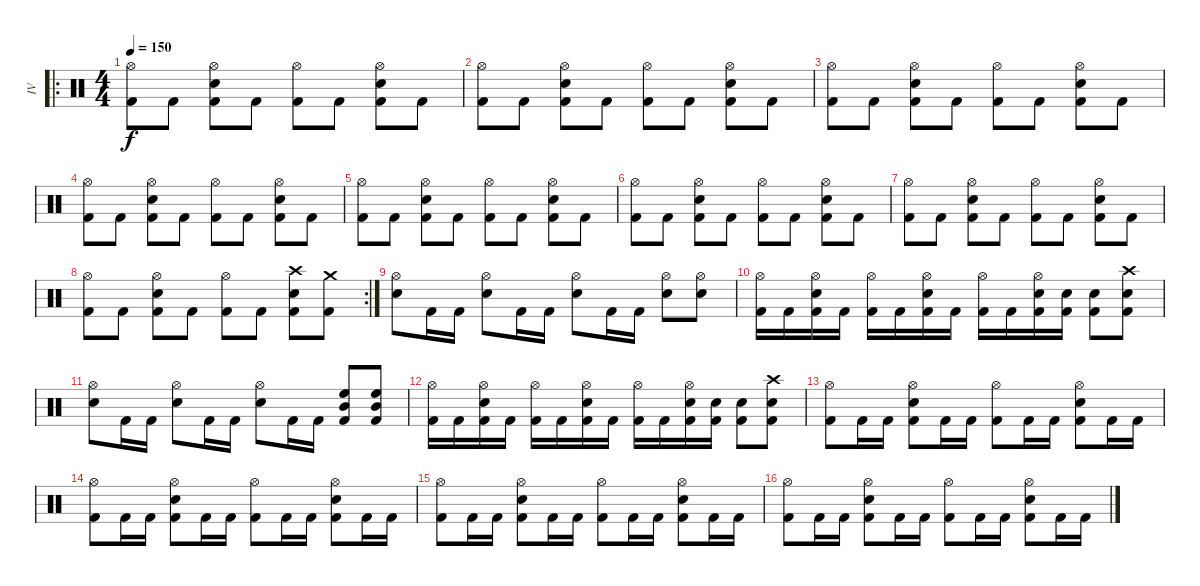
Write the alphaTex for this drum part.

\track ("IV" "IV") {instrument percussion}
\staff {score}
\articulation defaults
\ro
\ts (4 4)
\tempo 150
\clef neutral
\ks c
("Hi-Hat (open)" "Kick (hit) 2").8{dy f} "Kick (hit) 2".8 ("Hi-Hat (open)" "Snare (hit) 2" "Kick (hit) 2").8 "Kick (hit) 2".8 ("Hi-Hat (open)" "Kick (hit) 2").8 "Kick (hit) 2".8 ("Hi-Hat (open)" "Snare (hit) 2" "Kick (hit) 2").8 "Kick (hit) 2".8 |
("Hi-Hat (open)" "Kick (hit) 2").8 "Kick (hit) 2".8 ("Hi-Hat (open)" "Snare (hit) 2" "Kick (hit) 2").8 "Kick (hit) 2".8 ("Hi-Hat (open)" "Kick (hit) 2").8 "Kick (hit) 2".8 ("Hi-Hat (open)" "Snare (hit) 2" "Kick (hit) 2").8 "Kick (hit) 2".8 |
("Hi-Hat (open)" "Kick (hit) 2").8 "Kick (hit) 2".8 ("Hi-Hat (open)" "Snare (hit) 2" "Kick (hit) 2").8 "Kick (hit) 2".8 ("Hi-Hat (open)" "Kick (hit) 2").8 "Kick (hit) 2".8 ("Hi-Hat (open)" "Snare (hit) 2" "Kick (hit) 2").8 "Kick (hit) 2".8 |
("Hi-Hat (open)" "Kick (hit) 2").8 "Kick (hit) 2".8 ("Hi-Hat (open)" "Snare (hit) 2" "Kick (hit) 2").8 "Kick (hit) 2".8 ("Hi-Hat (open)" "Kick (hit) 2").8 "Kick (hit) 2".8 ("Hi-Hat (open)" "Snare (hit) 2" "Kick (hit) 2").8 "Kick (hit) 2".8 |
("Hi-Hat (open)" "Kick (hit) 2").8 "Kick (hit) 2".8 ("Hi-Hat (open)" "Snare (hit) 2" "Kick (hit) 2").8 "Kick (hit) 2".8 ("Hi-Hat (open)" "Kick (hit) 2").8 "Kick (hit) 2".8 ("Hi-Hat (open)" "Snare (hit) 2" "Kick (hit) 2").8 "Kick (hit) 2".8 |
("Hi-Hat (open)" "Kick (hit) 2").8 "Kick (hit) 2".8 ("Hi-Hat (open)" "Snare (hit) 2" "Kick (hit) 2").8 "Kick (hit) 2".8 ("Hi-Hat (open)" "Kick (hit) 2").8 "Kick (hit) 2".8 ("Hi-Hat (open)" "Snare (hit) 2" "Kick (hit) 2").8 "Kick (hit) 2".8 |
("Hi-Hat (open)" "Kick (hit) 2").8 "Kick (hit) 2".8 ("Hi-Hat (open)" "Snare (hit) 2" "Kick (hit) 2").8 "Kick (hit) 2".8 ("Hi-Hat (open)" "Kick (hit) 2").8 "Kick (hit) 2".8 ("Hi-Hat (open)" "Snare (hit) 2" "Kick (hit) 2").8 "Kick (hit) 2".8 |
\rc 2
("Hi-Hat (open)" "Kick (hit) 2").8 "Kick (hit) 2".8 ("Hi-Hat (open)" "Snare (hit) 2" "Kick (hit) 2").8 "Kick (hit) 2".8 ("Hi-Hat (open)" "Kick (hit) 2").8 "Kick (hit) 2".8 ("Crash high (hit)" "Snare (hit) 2" "Kick (hit) 2").8 ("Crash medium (hit)" "Kick (hit) 2").8 |
("Hi-Hat (open)" "Snare (hit) 2").8 "Kick (hit) 2".16 "Kick (hit) 2".16 ("Hi-Hat (open)" "Snare (hit) 2").8 "Kick (hit) 2".16 "Kick (hit) 2".16 ("Hi-Hat (open)" "Snare (hit) 2").8 "Kick (hit) 2".16 "Kick (hit) 2".16 ("Hi-Hat (open)" "Snare (hit) 2").8 ("Hi-Hat (open)" "Snare (hit) 2").8 |
("Hi-Hat (open)" "Kick (hit) 2").16 "Kick (hit) 2".16 ("Hi-Hat (open)" "Snare (hit) 2" "Kick (hit) 2").16 "Kick (hit) 2".16 ("Hi-Hat (open)" "Kick (hit) 2").16 "Kick (hit) 2".16 ("Hi-Hat (open)" "Snare (hit) 2" "Kick (hit) 2").16 "Kick (hit) 2".16 ("Hi-Hat (open)" "Kick (hit) 2").16 "Kick (hit) 2".16 ("Hi-Hat (open)" "Snare (hit) 2" "Kick (hit) 2").16 ("Snare (hit) 2" "Kick (hit) 2").16 ("Snare (hit) 2" "Kick (hit) 2").8 ("Crash high (hit)" "Snare (hit) 2" "Kick (hit) 2").8 |
("Hi-Hat (open)" "Snare (hit) 2").8 "Kick (hit) 2".16 "Kick (hit) 2".16 ("Hi-Hat (open)" "Snare (hit) 2").8 "Kick (hit) 2".16 "Kick (hit) 2".16 ("Hi-Hat (open)" "Snare (hit) 2").8 "Kick (hit) 2".16 "Kick (hit) 2".16 ("High Floor Tom (hit)" "Mid Tom (hit)" "Kick (hit) 2").8 ("High Floor Tom (hit)" "Mid Tom (hit)" "Kick (hit) 2").8 |
("Hi-Hat (open)" "Kick (hit) 2").16 "Kick (hit) 2".16 ("Hi-Hat (open)" "Snare (hit) 2" "Kick (hit) 2").16 "Kick (hit) 2".16 ("Hi-Hat (open)" "Kick (hit) 2").16 "Kick (hit) 2".16 ("Hi-Hat (open)" "Snare (hit) 2" "Kick (hit) 2").16 "Kick (hit) 2".16 ("Hi-Hat (open)" "Kick (hit) 2").16 "Kick (hit) 2".16 ("Hi-Hat (open)" "Snare (hit) 2" "Kick (hit) 2").16 ("Snare (hit) 2" "Kick (hit) 2").16 ("Snare (hit) 2" "Kick (hit) 2").8 ("Crash high (hit)" "Snare (hit) 2" "Kick (hit) 2").8 |
("Hi-Hat (open)" "Kick (hit) 2").8 "Kick (hit) 2".16 "Kick (hit) 2".16 ("Hi-Hat (open)" "Snare (hit) 2" "Kick (hit) 2").8 "Kick (hit) 2".16 "Kick (hit) 2".16 ("Hi-Hat (open)" "Kick (hit) 2").8 "Kick (hit) 2".16 "Kick (hit) 2".16 ("Hi-Hat (open)" "Snare (hit) 2" "Kick (hit) 2").8 "Kick (hit) 2".16 "Kick (hit) 2".16 |
("Hi-Hat (open)" "Kick (hit) 2").8 "Kick (hit) 2".16 "Kick (hit) 2".16 ("Hi-Hat (open)" "Snare (hit) 2" "Kick (hit) 2").8 "Kick (hit) 2".16 "Kick (hit) 2".16 ("Hi-Hat (open)" "Kick (hit) 2").8 "Kick (hit) 2".16 "Kick (hit) 2".16 ("Hi-Hat (open)" "Snare (hit) 2" "Kick (hit) 2").8 "Kick (hit) 2".16 "Kick (hit) 2".16 |
("Hi-Hat (open)" "Kick (hit) 2").8 "Kick (hit) 2".16 "Kick (hit) 2".16 ("Hi-Hat (open)" "Snare (hit) 2" "Kick (hit) 2").8 "Kick (hit) 2".16 "Kick (hit) 2".16 ("Hi-Hat (open)" "Kick (hit) 2").8 "Kick (hit) 2".16 "Kick (hit) 2".16 ("Hi-Hat (open)" "Snare (hit) 2" "Kick (hit) 2").8 "Kick (hit) 2".16 "Kick (hit) 2".16 |
("Hi-Hat (open)" "Kick (hit) 2").8 "Kick (hit) 2".16 "Kick (hit) 2".16 ("Hi-Hat (open)" "Snare (hit) 2" "Kick (hit) 2").8 "Kick (hit) 2".16 "Kick (hit) 2".16 ("Hi-Hat (open)" "Kick (hit) 2").8 "Kick (hit) 2".16 "Kick (hit) 2".16 ("Hi-Hat (open)" "Snare (hit) 2" "Kick (hit) 2").8 "Kick (hit) 2".16 "Kick (hit) 2".16
